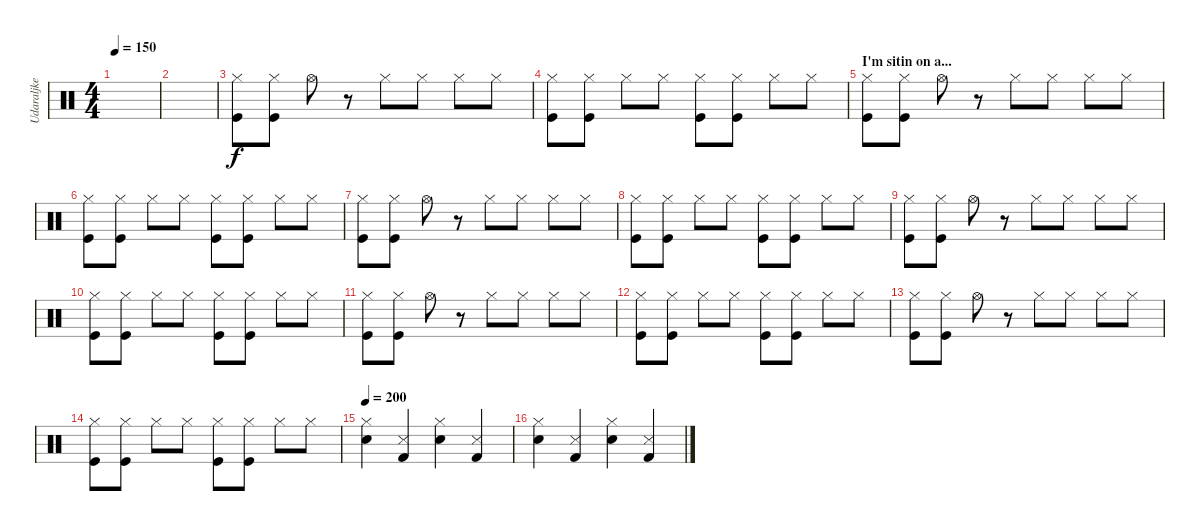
\track ("Udaraljke" "Udaraljke") {instrument percussion}
\staff {score}
\articulation defaults
\ts (4 4)
\tempo 150
\tempo 70
\tempo 150
\clef neutral
\ks c
|
|
("Kick (hit)" "Hi-Hat (closed)").8 ("Kick (hit)" "Hi-Hat (closed)").8 "Hi-Hat (open)".8 r.8 "Hi-Hat (closed)".8 "Hi-Hat (closed)".8 "Hi-Hat (closed)".8 "Hi-Hat (closed)".8 |
("Kick (hit)" "Hi-Hat (closed)").8 ("Kick (hit)" "Hi-Hat (closed)").8 "Hi-Hat (closed)".8 "Hi-Hat (closed)".8 ("Kick (hit)" "Hi-Hat (closed)").8 ("Kick (hit)" "Hi-Hat (closed)").8 "Hi-Hat (closed)".8 "Hi-Hat (closed)".8 |
\section ("" "I'm sitin on a...")
("Kick (hit)" "Hi-Hat (closed)").8 ("Kick (hit)" "Hi-Hat (closed)").8 "Hi-Hat (open)".8 r.8 "Hi-Hat (closed)".8 "Hi-Hat (closed)".8 "Hi-Hat (closed)".8 "Hi-Hat (closed)".8 |
("Kick (hit)" "Hi-Hat (closed)").8 ("Kick (hit)" "Hi-Hat (closed)").8 "Hi-Hat (closed)".8 "Hi-Hat (closed)".8 ("Kick (hit)" "Hi-Hat (closed)").8 ("Kick (hit)" "Hi-Hat (closed)").8 "Hi-Hat (closed)".8 "Hi-Hat (closed)".8 |
("Kick (hit)" "Hi-Hat (closed)").8 ("Kick (hit)" "Hi-Hat (closed)").8 "Hi-Hat (open)".8 r.8 "Hi-Hat (closed)".8 "Hi-Hat (closed)".8 "Hi-Hat (closed)".8 "Hi-Hat (closed)".8 |
("Kick (hit)" "Hi-Hat (closed)").8 ("Kick (hit)" "Hi-Hat (closed)").8 "Hi-Hat (closed)".8 "Hi-Hat (closed)".8 ("Kick (hit)" "Hi-Hat (closed)").8 ("Kick (hit)" "Hi-Hat (closed)").8 "Hi-Hat (closed)".8 "Hi-Hat (closed)".8 |
("Kick (hit)" "Hi-Hat (closed)").8 ("Kick (hit)" "Hi-Hat (closed)").8 "Hi-Hat (open)".8 r.8 "Hi-Hat (closed)".8 "Hi-Hat (closed)".8 "Hi-Hat (closed)".8 "Hi-Hat (closed)".8 |
("Kick (hit)" "Hi-Hat (closed)").8 ("Kick (hit)" "Hi-Hat (closed)").8 "Hi-Hat (closed)".8 "Hi-Hat (closed)".8 ("Kick (hit)" "Hi-Hat (closed)").8 ("Kick (hit)" "Hi-Hat (closed)").8 "Hi-Hat (closed)".8 "Hi-Hat (closed)".8 |
("Kick (hit)" "Hi-Hat (closed)").8 ("Kick (hit)" "Hi-Hat (closed)").8 "Hi-Hat (open)".8 r.8 "Hi-Hat (closed)".8 "Hi-Hat (closed)".8 "Hi-Hat (closed)".8 "Hi-Hat (closed)".8 |
("Kick (hit)" "Hi-Hat (closed)").8 ("Kick (hit)" "Hi-Hat (closed)").8 "Hi-Hat (closed)".8 "Hi-Hat (closed)".8 ("Kick (hit)" "Hi-Hat (closed)").8 ("Kick (hit)" "Hi-Hat (closed)").8 "Hi-Hat (closed)".8 "Hi-Hat (closed)".8 |
("Kick (hit)" "Hi-Hat (closed)").8 ("Kick (hit)" "Hi-Hat (closed)").8 "Hi-Hat (open)".8 r.8 "Hi-Hat (closed)".8 "Hi-Hat (closed)".8 "Hi-Hat (closed)".8 "Hi-Hat (closed)".8 |
("Kick (hit)" "Hi-Hat (closed)").8 ("Kick (hit)" "Hi-Hat (closed)").8 "Hi-Hat (closed)".8 "Hi-Hat (closed)".8 ("Kick (hit)" "Hi-Hat (closed)").8 ("Kick (hit)" "Hi-Hat (closed)").8 "Hi-Hat (closed)".8 "Hi-Hat (closed)".8 |
\tempo 200
("Snare (hit) 2" "Hi-Hat (closed)").4 ("Kick (hit) 2" "Snare (side stick) 3").4 ("Snare (hit) 2" "Hi-Hat (closed)").4 ("Kick (hit) 2" "Snare (side stick) 3").4 |
("Snare (hit) 2" "Hi-Hat (closed)").4 ("Kick (hit) 2" "Snare (side stick) 3").4 ("Snare (hit) 2" "Hi-Hat (closed)").4 ("Kick (hit) 2" "Snare (side stick) 3").4
